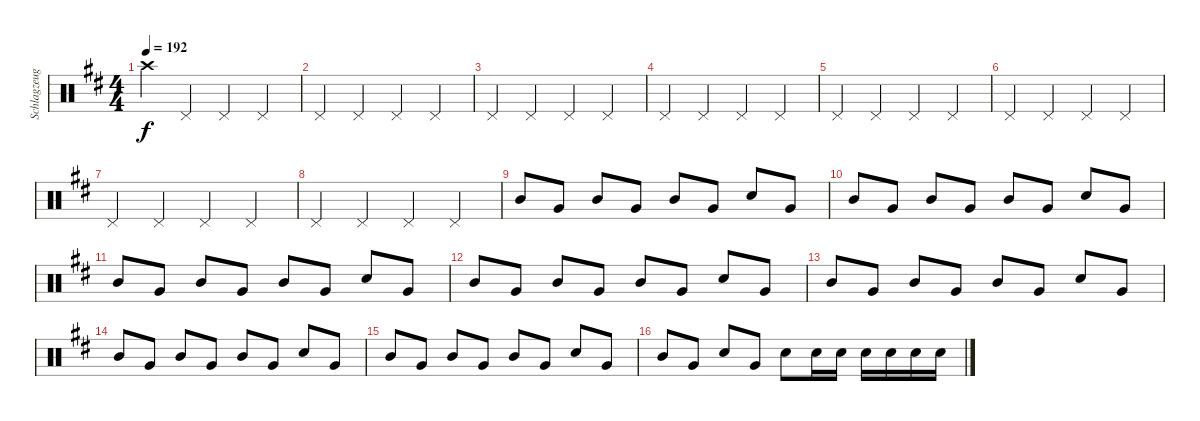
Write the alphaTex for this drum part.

\track ("Schlagzeug - Vom" "Schlagzeug") {instrument percussion}
\staff {score}
\articulation defaults
\ts (4 4)
\tempo 192
\clef neutral
\ks d "Crash high (hit)".4{dy f} "Pedal Hi-Hat (hit)".4 "Pedal Hi-Hat (hit)".4 "Pedal Hi-Hat (hit)".4
|
"Pedal Hi-Hat (hit)".4 "Pedal Hi-Hat (hit)".4 "Pedal Hi-Hat (hit)".4 "Pedal Hi-Hat (hit)".4 |
"Pedal Hi-Hat (hit)".4 "Pedal Hi-Hat (hit)".4 "Pedal Hi-Hat (hit)".4 "Pedal Hi-Hat (hit)".4 |
"Pedal Hi-Hat (hit)".4 "Pedal Hi-Hat (hit)".4 "Pedal Hi-Hat (hit)".4 "Pedal Hi-Hat (hit)".4 |
"Pedal Hi-Hat (hit)".4 "Pedal Hi-Hat (hit)".4 "Pedal Hi-Hat (hit)".4 "Pedal Hi-Hat (hit)".4 |
"Pedal Hi-Hat (hit)".4 "Pedal Hi-Hat (hit)".4 "Pedal Hi-Hat (hit)".4 "Pedal Hi-Hat (hit)".4 |
"Pedal Hi-Hat (hit)".4 "Pedal Hi-Hat (hit)".4 "Pedal Hi-Hat (hit)".4 "Pedal Hi-Hat (hit)".4 |
"Pedal Hi-Hat (hit)".4 "Pedal Hi-Hat (hit)".4 "Pedal Hi-Hat (hit)".4 "Pedal Hi-Hat (hit)".4 |
"Mid Tom (hit)".8 "Very Low Tom (hit)".8 "Mid Tom (hit)".8 "Very Low Tom (hit)".8 "Mid Tom (hit)".8 "Very Low Tom (hit)".8 "Snare (hit) 2".8 "Very Low Tom (hit)".8 |
"Mid Tom (hit)".8 "Very Low Tom (hit)".8 "Mid Tom (hit)".8 "Very Low Tom (hit)".8 "Mid Tom (hit)".8 "Very Low Tom (hit)".8 "Snare (hit) 2".8 "Very Low Tom (hit)".8 |
"Mid Tom (hit)".8 "Very Low Tom (hit)".8 "Mid Tom (hit)".8 "Very Low Tom (hit)".8 "Mid Tom (hit)".8 "Very Low Tom (hit)".8 "Snare (hit) 2".8 "Very Low Tom (hit)".8 |
"Mid Tom (hit)".8 "Very Low Tom (hit)".8 "Mid Tom (hit)".8 "Very Low Tom (hit)".8 "Mid Tom (hit)".8 "Very Low Tom (hit)".8 "Snare (hit) 2".8 "Very Low Tom (hit)".8 |
"Mid Tom (hit)".8 "Very Low Tom (hit)".8 "Mid Tom (hit)".8 "Very Low Tom (hit)".8 "Mid Tom (hit)".8 "Very Low Tom (hit)".8 "Snare (hit) 2".8 "Very Low Tom (hit)".8 |
"Mid Tom (hit)".8 "Very Low Tom (hit)".8 "Mid Tom (hit)".8 "Very Low Tom (hit)".8 "Mid Tom (hit)".8 "Very Low Tom (hit)".8 "Snare (hit) 2".8 "Very Low Tom (hit)".8 |
"Mid Tom (hit)".8 "Very Low Tom (hit)".8 "Mid Tom (hit)".8 "Very Low Tom (hit)".8 "Mid Tom (hit)".8 "Very Low Tom (hit)".8 "Snare (hit) 2".8 "Very Low Tom (hit)".8 |
"Mid Tom (hit)".8 "Very Low Tom (hit)".8 "Snare (hit) 2".8 "Very Low Tom (hit)".8 "Snare (hit) 2".8 "Snare (hit) 2".16 "Snare (hit) 2".16 "Snare (hit) 2".16 "Snare (hit) 2".16 "Snare (hit) 2".16 "Snare (hit) 2".16
